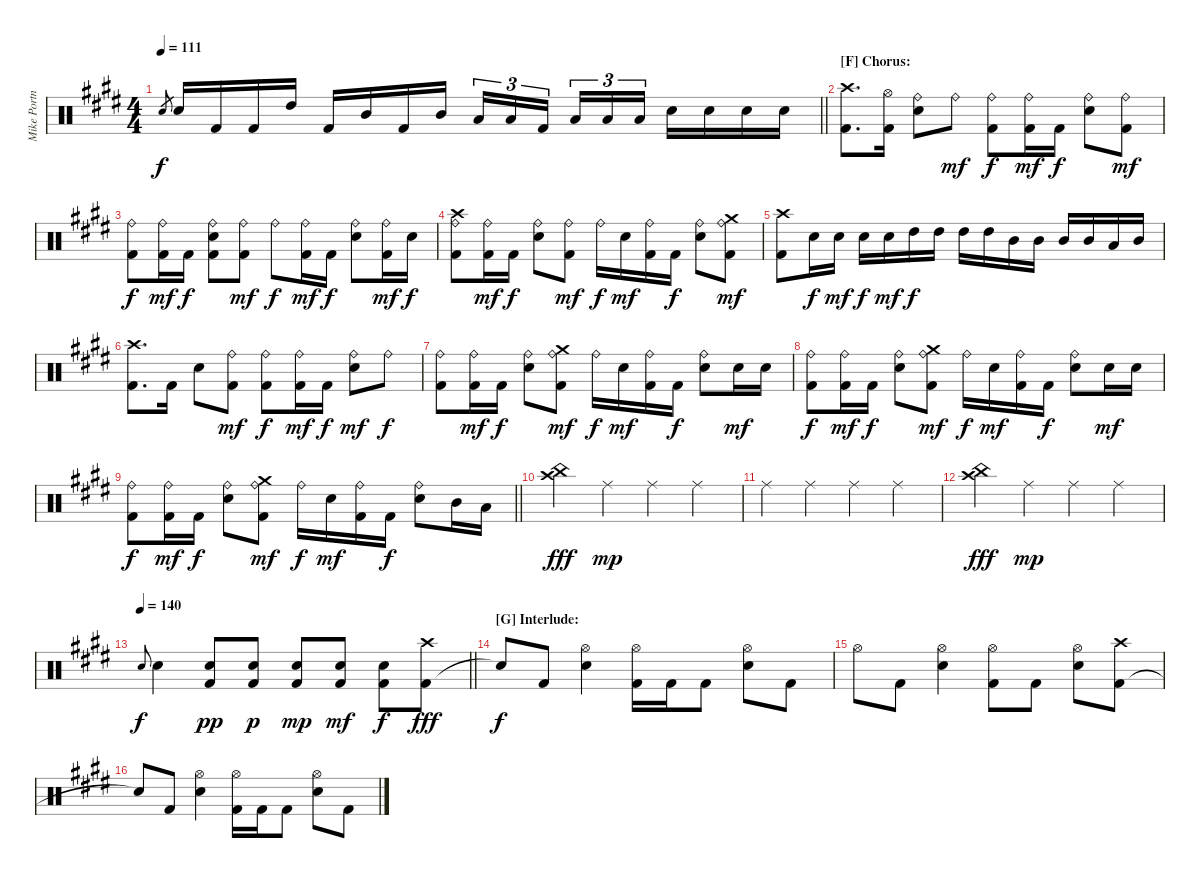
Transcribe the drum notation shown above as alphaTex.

\track ("Mike Portnoy - Drums" "Mike Portn") {instrument percussion}
\staff {score}
\articulation defaults
\ts (4 4)
\tempo 111
\clef neutral
\barLineRight lightlight
\ks e "Electric Snare (hit)".8{gr dy f} "Electric Snare (hit)".16 "Kick (hit) 2".16 "Kick (hit) 2".16 "High Tom (hit)".16 "Kick (hit) 2".16 "Mid Tom (hit)".16 "Kick (hit) 2".16 "Mid Tom (hit)".16 "Low Tom (hit)".16{tu (3 2)} "Low Tom (hit)".16{tu (3 2)} "Kick (hit) 2".16{tu (3 2) beam splitsecondary} "Low Tom (hit)".16{tu (3 2)} "Low Tom (hit)".16{tu (3 2)} "Low Tom (hit)".16{tu (3 2)} "Electric Snare (hit)".16 "Electric Snare (hit)".16 "Electric Snare (hit)".16 "Electric Snare (hit)".16
|
\section ("" "[F] Chorus:")
\ks c#minor
("Crash high (hit)" "Kick (hit) 2").8{d} ("Hi-Hat (open)" "Kick (hit) 2").16 ("Ride (bell)" "Electric Snare (hit)").8 "Ride (bell)".8{dy mf} ("Kick (hit) 2" "Ride (bell)").8{dy f} ("Kick (hit) 2" "Ride (bell)").16{dy mf} "Kick (hit) 2".16{dy f} ("Ride (bell)" "Electric Snare (hit)").8 ("Kick (hit) 2" "Ride (bell)").8{dy mf} |
("Kick (hit) 2" "Ride (bell)").8{dy f} ("Kick (hit) 2" "Ride (bell)").16{dy mf} "Kick (hit) 2".16{dy f} ("Kick (hit) 2" "Ride (bell)" "Electric Snare (hit)").8 ("Kick (hit) 2" "Ride (bell)").8{dy mf} "Ride (bell)".8{dy f} ("Kick (hit) 2" "Ride (bell)").16{dy mf} "Kick (hit) 2".16{dy f} ("Ride (bell)" "Electric Snare (hit)").8 ("Kick (hit) 2" "Ride (bell)").16{dy mf} "Electric Snare (hit)".16{dy f} |
\ks e
("Crash high (hit)" "Kick (hit) 2" "Ride (bell)").8 ("Kick (hit) 2" "Ride (bell)").16{dy mf} "Kick (hit) 2".16{dy f} ("Ride (bell)" "Electric Snare (hit)").8 ("Kick (hit) 2" "Ride (bell)").8{dy mf} "Ride (bell)".16{dy f} "Electric Snare (hit)".16{dy mf} ("Kick (hit) 2" "Ride (bell)").16 "Kick (hit) 2".16{dy f} ("Ride (bell)" "Electric Snare (hit)").8 ("Crash medium (hit)" "Kick (hit) 2" "Ride (bell)").8{dy mf} |
\ks c#minor
("Crash high (hit)" "Kick (hit) 2").8 "Electric Snare (hit)".16{dy f} "Electric Snare (hit)".16{dy mf} "Electric Snare (hit)".16{dy f} "Electric Snare (hit)".16{dy mf} "High Tom (hit)".16{dy f} "High Tom (hit)".16 "High Tom (hit)".16 "High Tom (hit)".16 "Mid Tom (hit)".16 "Mid Tom (hit)".16 "Mid Tom (hit)".16 "Mid Tom (hit)".16 "Low Tom (hit)".16 "Mid Tom (hit)".16 |
("Crash high (hit)" "Kick (hit) 2").8{d} "Kick (hit) 2".16 "Electric Snare (hit)".8 ("Kick (hit) 2" "Ride (bell)").8{dy mf} ("Kick (hit) 2" "Ride (bell)").8{dy f} ("Kick (hit) 2" "Ride (bell)").16{dy mf} "Kick (hit) 2".16{dy f} ("Ride (bell)" "Electric Snare (hit)").8{dy mf} "Ride (bell)".8{dy f} |
\ks e
("Kick (hit) 2" "Ride (bell)").8 ("Kick (hit) 2" "Ride (bell)").16{dy mf} "Kick (hit) 2".16{dy f} ("Ride (bell)" "Electric Snare (hit)").8 ("Crash medium (hit)" "Kick (hit) 2" "Ride (bell)").8{dy mf} "Ride (bell)".16{dy f} "Electric Snare (hit)".16{dy mf} ("Kick (hit) 2" "Ride (bell)").16 "Kick (hit) 2".16{dy f} ("Ride (bell)" "Electric Snare (hit)").8 "Electric Snare (hit)".16{dy mf} "Electric Snare (hit)".16 |
\ks c#minor
("Kick (hit) 2" "Ride (bell)").8{dy f} ("Kick (hit) 2" "Ride (bell)").16{dy mf} "Kick (hit) 2".16{dy f} ("Ride (bell)" "Electric Snare (hit)").8 ("Crash medium (hit)" "Kick (hit) 2" "Ride (bell)").8{dy mf} "Ride (bell)".16{dy f} "Electric Snare (hit)".16{dy mf} ("Kick (hit) 2" "Ride (bell)").16 "Kick (hit) 2".16{dy f} ("Ride (bell)" "Electric Snare (hit)").8 "Electric Snare (hit)".16{dy mf} "Electric Snare (hit)".16 |
\barLineRight lightlight
("Kick (hit) 2" "Ride (bell)").8{dy f} ("Kick (hit) 2" "Ride (bell)").16{dy mf} "Kick (hit) 2".16{dy f} ("Ride (bell)" "Electric Snare (hit)").8 ("Crash medium (hit)" "Kick (hit) 2" "Ride (bell)").8{dy mf} "Ride (bell)".16{dy f} "Electric Snare (hit)".16{dy mf} ("Kick (hit) 2" "Ride (bell)").16 "Kick (hit) 2".16{dy f} ("Ride (bell)" "Electric Snare (hit)").8 "Mid Tom (hit)".16 "Low Tom (hit)".16 |
\ks e
("Crash high (hit)" "China (hit)").4{dy fff} "Ride (middle)".4{dy mp} "Ride (middle)".4 "Ride (middle)".4 |
\ks c#minor "Ride (middle)".4 "Ride (middle)".4 "Ride (middle)".4 "Ride (middle)".4
|
("Crash high (hit)" "China (hit)").4{dy fff} "Ride (middle)".4{dy mp} "Ride (middle)".4 "Ride (middle)".4 |
\tempo 140
\barLineRight lightlight "Electric Snare (hit)".8{gr onbeat dy f} "Electric Snare (hit)".4
("Kick (hit) 2" "Electric Snare (hit)").8{dy pp} ("Kick (hit) 2" "Electric Snare (hit)").8{dy p} ("Kick (hit) 2" "Electric Snare (hit)").8{dy mp} ("Kick (hit) 2" "Electric Snare (hit)").8{dy mf} ("Kick (hit) 2" "Electric Snare (hit)").8{dy f} ("Kick (hit) 2" "Crash high (hit)").8{dy fff} |
\section ("" "[G] Interlude:")
"Snare (hit)"{t}.8{dy f} "Kick (hit) 2".8 ("Electric Snare (hit)" "Hi-Hat (open)").4 ("Kick (hit) 2" "Hi-Hat (open)").16 "Kick (hit) 2".16 "Kick (hit) 2".8 ("Electric Snare (hit)" "Hi-Hat (open)").8 "Kick (hit) 2".8 |
\ks e "Hi-Hat (open)".8 "Kick (hit) 2".8
("Electric Snare (hit)" "Hi-Hat (open)").4 ("Kick (hit) 2" "Hi-Hat (open)").8 "Kick (hit) 2".8 ("Electric Snare (hit)" "Hi-Hat (open)").8 ("Kick (hit) 2" "Crash high (hit)").8 |
\ks c#minor "Snare (hit)"{t}.8 "Kick (hit) 2".8
("Electric Snare (hit)" "Hi-Hat (open)").4 ("Kick (hit) 2" "Hi-Hat (open)").16 "Kick (hit) 2".16 "Kick (hit) 2".8 ("Electric Snare (hit)" "Hi-Hat (open)").8 "Kick (hit) 2".8
